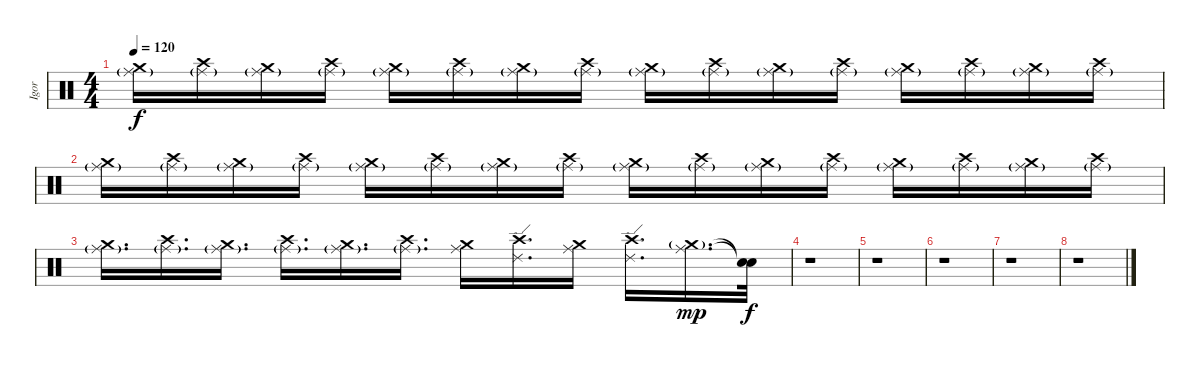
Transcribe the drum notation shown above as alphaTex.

\track ("Igor" "Igor") {instrument percussion}
\staff {score}
\articulation defaults
\ts (4 4)
\tempo 120
\clef neutral
\ks c
("Crash medium (hit)" "Ride (middle)"{g}).16{dy f} ("Crash high (hit)" "Ride (middle)"{g}).16 ("Crash medium (hit)" "Ride (middle)"{g}).16 ("Crash high (hit)" "Ride (middle)"{g}).16 ("Crash medium (hit)" "Ride (middle)"{g}).16 ("Crash high (hit)" "Ride (middle)"{g}).16 ("Crash medium (hit)" "Ride (middle)"{g}).16 ("Crash high (hit)" "Ride (middle)"{g}).16 ("Crash medium (hit)" "Ride (middle)"{g}).16 ("Crash high (hit)" "Ride (middle)"{g}).16 ("Crash medium (hit)" "Ride (middle)"{g}).16 ("Crash high (hit)" "Ride (middle)"{g}).16 ("Crash medium (hit)" "Ride (middle)"{g}).16 ("Crash high (hit)" "Ride (middle)"{g}).16 ("Crash medium (hit)" "Ride (middle)"{g}).16 ("Crash high (hit)" "Ride (middle)"{g}).16 |
("Crash medium (hit)" "Ride (middle)"{g}).16 ("Crash high (hit)" "Ride (middle)"{g}).16 ("Crash medium (hit)" "Ride (middle)"{g}).16 ("Crash high (hit)" "Ride (middle)"{g}).16 ("Crash medium (hit)" "Ride (middle)"{g}).16 ("Crash high (hit)" "Ride (middle)"{g}).16 ("Crash medium (hit)" "Ride (middle)"{g}).16 ("Crash high (hit)" "Ride (middle)"{g}).16 ("Crash medium (hit)" "Ride (middle)"{g}).16 ("Crash high (hit)" "Ride (middle)"{g}).16 ("Crash medium (hit)" "Ride (middle)"{g}).16 ("Crash high (hit)" "Ride (middle)"{g}).16 ("Crash medium (hit)" "Ride (middle)"{g}).16 ("Crash high (hit)" "Ride (middle)"{g}).16 ("Crash medium (hit)" "Ride (middle)"{g}).16 ("Crash high (hit)" "Ride (middle)"{g}).16 |
("Crash medium (hit)" "Ride (middle)"{g}).16{d volume 0} ("Crash high (hit)" "Ride (middle)"{g}).16{d} ("Crash medium (hit)" "Ride (middle)"{g}).16{d} ("Crash high (hit)" "Ride (middle)"{g}).16{d} ("Crash medium (hit)" "Ride (middle)"{g}).16{d} ("Crash high (hit)" "Ride (middle)"{g}).16{d} ("Crash medium (hit)" "Ride (middle)").16 ("Crash high (hit)" "Ride (edge) 2").16{d} ("Crash medium (hit)" "Ride (middle)").16 ("Crash high (hit)" "Ride (edge) 2").16{d} ("Crash medium (hit)"{g} "Ride (middle)").16{d dy mp} ("Snare (hit)"{t} "Snare (hit)"{t}).32{dy f} |
r.1 |
r.1 |
r.1 |
r.1 |
r.1
